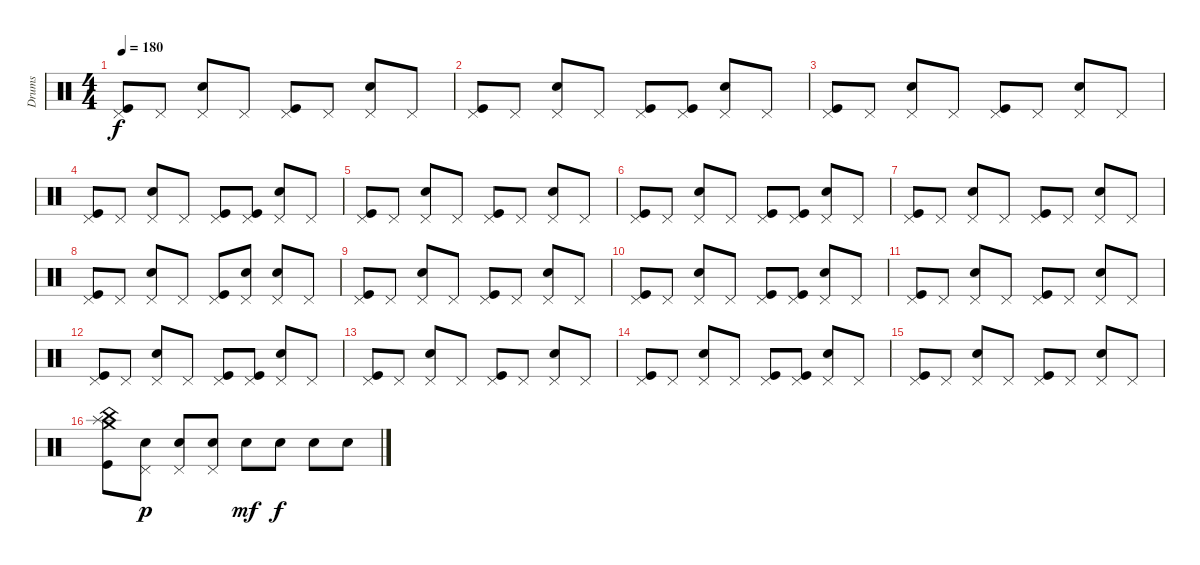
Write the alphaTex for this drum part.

\track ("Drums" "Drums") {instrument percussion}
\staff {score}
\articulation defaults
\ts (4 4)
\tempo 180
\clef neutral
\ks c
("Pedal Hi-Hat (hit)" "Kick (hit)").8{dy f} "Pedal Hi-Hat (hit)".8 ("Pedal Hi-Hat (hit)" "Snare (hit) 2").8 "Pedal Hi-Hat (hit)".8 ("Pedal Hi-Hat (hit)" "Kick (hit)").8 "Pedal Hi-Hat (hit)".8 ("Pedal Hi-Hat (hit)" "Snare (hit) 2").8 "Pedal Hi-Hat (hit)".8 |
("Pedal Hi-Hat (hit)" "Kick (hit)").8 "Pedal Hi-Hat (hit)".8 ("Pedal Hi-Hat (hit)" "Snare (hit) 2").8 "Pedal Hi-Hat (hit)".8 ("Pedal Hi-Hat (hit)" "Kick (hit)").8 ("Pedal Hi-Hat (hit)" "Kick (hit)").8 ("Pedal Hi-Hat (hit)" "Snare (hit) 2").8 "Pedal Hi-Hat (hit)".8 |
("Pedal Hi-Hat (hit)" "Kick (hit)").8 "Pedal Hi-Hat (hit)".8 ("Pedal Hi-Hat (hit)" "Snare (hit) 2").8 "Pedal Hi-Hat (hit)".8 ("Pedal Hi-Hat (hit)" "Kick (hit)").8 "Pedal Hi-Hat (hit)".8 ("Pedal Hi-Hat (hit)" "Snare (hit) 2").8 "Pedal Hi-Hat (hit)".8 |
("Pedal Hi-Hat (hit)" "Kick (hit)").8 "Pedal Hi-Hat (hit)".8 ("Pedal Hi-Hat (hit)" "Snare (hit) 2").8 "Pedal Hi-Hat (hit)".8 ("Pedal Hi-Hat (hit)" "Kick (hit)").8 ("Pedal Hi-Hat (hit)" "Kick (hit)").8 ("Pedal Hi-Hat (hit)" "Snare (hit) 2").8 "Pedal Hi-Hat (hit)".8 |
("Pedal Hi-Hat (hit)" "Kick (hit)").8 "Pedal Hi-Hat (hit)".8 ("Pedal Hi-Hat (hit)" "Snare (hit) 2").8 "Pedal Hi-Hat (hit)".8 ("Pedal Hi-Hat (hit)" "Kick (hit)").8 "Pedal Hi-Hat (hit)".8 ("Pedal Hi-Hat (hit)" "Snare (hit) 2").8 "Pedal Hi-Hat (hit)".8 |
("Pedal Hi-Hat (hit)" "Kick (hit)").8 "Pedal Hi-Hat (hit)".8 ("Pedal Hi-Hat (hit)" "Snare (hit) 2").8 "Pedal Hi-Hat (hit)".8 ("Pedal Hi-Hat (hit)" "Kick (hit)").8 ("Pedal Hi-Hat (hit)" "Kick (hit)").8 ("Pedal Hi-Hat (hit)" "Snare (hit) 2").8 "Pedal Hi-Hat (hit)".8 |
("Pedal Hi-Hat (hit)" "Kick (hit)").8 "Pedal Hi-Hat (hit)".8 ("Pedal Hi-Hat (hit)" "Snare (hit) 2").8 "Pedal Hi-Hat (hit)".8 ("Pedal Hi-Hat (hit)" "Kick (hit)").8 "Pedal Hi-Hat (hit)".8 ("Pedal Hi-Hat (hit)" "Snare (hit) 2").8 "Pedal Hi-Hat (hit)".8 |
("Pedal Hi-Hat (hit)" "Kick (hit)").8 "Pedal Hi-Hat (hit)".8 ("Pedal Hi-Hat (hit)" "Snare (hit) 2").8 "Pedal Hi-Hat (hit)".8 ("Pedal Hi-Hat (hit)" "Kick (hit)").8 ("Pedal Hi-Hat (hit)" "Snare (hit) 2").8 ("Pedal Hi-Hat (hit)" "Snare (hit) 2").8 "Pedal Hi-Hat (hit)".8 |
("Pedal Hi-Hat (hit)" "Kick (hit)").8 "Pedal Hi-Hat (hit)".8 ("Pedal Hi-Hat (hit)" "Snare (hit) 2").8 "Pedal Hi-Hat (hit)".8 ("Pedal Hi-Hat (hit)" "Kick (hit)").8 "Pedal Hi-Hat (hit)".8 ("Pedal Hi-Hat (hit)" "Snare (hit) 2").8 "Pedal Hi-Hat (hit)".8 |
("Pedal Hi-Hat (hit)" "Kick (hit)").8 "Pedal Hi-Hat (hit)".8 ("Pedal Hi-Hat (hit)" "Snare (hit) 2").8 "Pedal Hi-Hat (hit)".8 ("Pedal Hi-Hat (hit)" "Kick (hit)").8 ("Pedal Hi-Hat (hit)" "Kick (hit)").8 ("Pedal Hi-Hat (hit)" "Snare (hit) 2").8 "Pedal Hi-Hat (hit)".8 |
("Pedal Hi-Hat (hit)" "Kick (hit)").8 "Pedal Hi-Hat (hit)".8 ("Pedal Hi-Hat (hit)" "Snare (hit) 2").8 "Pedal Hi-Hat (hit)".8 ("Pedal Hi-Hat (hit)" "Kick (hit)").8 "Pedal Hi-Hat (hit)".8 ("Pedal Hi-Hat (hit)" "Snare (hit) 2").8 "Pedal Hi-Hat (hit)".8 |
("Pedal Hi-Hat (hit)" "Kick (hit)").8 "Pedal Hi-Hat (hit)".8 ("Pedal Hi-Hat (hit)" "Snare (hit) 2").8 "Pedal Hi-Hat (hit)".8 ("Pedal Hi-Hat (hit)" "Kick (hit)").8 ("Pedal Hi-Hat (hit)" "Kick (hit)").8 ("Pedal Hi-Hat (hit)" "Snare (hit) 2").8 "Pedal Hi-Hat (hit)".8 |
("Pedal Hi-Hat (hit)" "Kick (hit)").8 "Pedal Hi-Hat (hit)".8 ("Pedal Hi-Hat (hit)" "Snare (hit) 2").8 "Pedal Hi-Hat (hit)".8 ("Pedal Hi-Hat (hit)" "Kick (hit)").8 "Pedal Hi-Hat (hit)".8 ("Pedal Hi-Hat (hit)" "Snare (hit) 2").8 "Pedal Hi-Hat (hit)".8 |
("Pedal Hi-Hat (hit)" "Kick (hit)").8 "Pedal Hi-Hat (hit)".8 ("Pedal Hi-Hat (hit)" "Snare (hit) 2").8 "Pedal Hi-Hat (hit)".8 ("Pedal Hi-Hat (hit)" "Kick (hit)").8 ("Pedal Hi-Hat (hit)" "Kick (hit)").8 ("Pedal Hi-Hat (hit)" "Snare (hit) 2").8 "Pedal Hi-Hat (hit)".8 |
("Pedal Hi-Hat (hit)" "Kick (hit)").8 "Pedal Hi-Hat (hit)".8 ("Pedal Hi-Hat (hit)" "Snare (hit) 2").8 "Pedal Hi-Hat (hit)".8 ("Pedal Hi-Hat (hit)" "Kick (hit)").8 "Pedal Hi-Hat (hit)".8 ("Pedal Hi-Hat (hit)" "Snare (hit) 2").8 "Pedal Hi-Hat (hit)".8 |
("Crash medium (hit)" "Splash (hit)" "China (hit)" "Kick (hit)").8 ("Pedal Hi-Hat (hit)" "Snare (hit) 2").8{dy p} ("Pedal Hi-Hat (hit)" "Snare (hit) 2").8 ("Pedal Hi-Hat (hit)" "Snare (hit) 2").8 "Snare (hit) 2".8{dy mf} "Snare (hit) 2".8{dy f} "Snare (hit) 2".8 "Snare (hit) 2".8
